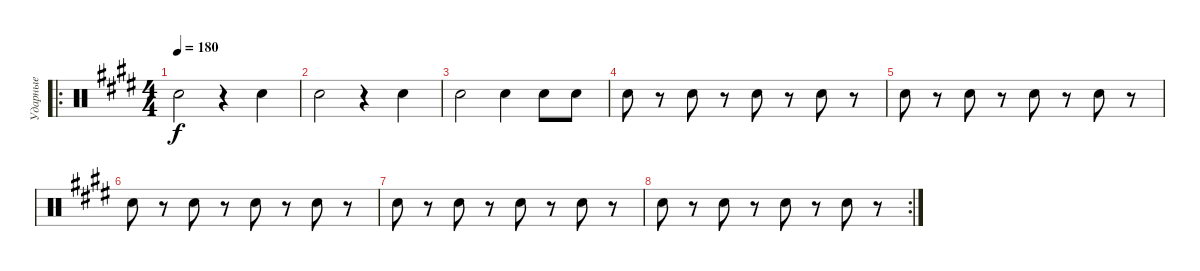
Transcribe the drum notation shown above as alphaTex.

\track ("Ударные" "Ударные") {instrument percussion}
\staff {score}
\articulation defaults
\ro
\ts (4 4)
\tempo 180
\clef neutral
\ks e "Snare (hit) 2".2{dy f}
r.4 "Snare (hit) 2".4 |
"Snare (hit) 2".2 r.4 "Snare (hit) 2".4 |
"Snare (hit) 2".2 "Snare (hit) 2".4 "Snare (hit) 2".8 "Snare (hit) 2".8 |
"Snare (hit) 2".8 r.8 "Snare (hit) 2".8 r.8 "Snare (hit) 2".8 r.8 "Snare (hit) 2".8 r.8 |
"Snare (hit) 2".8 r.8 "Snare (hit) 2".8 r.8 "Snare (hit) 2".8 r.8 "Snare (hit) 2".8 r.8 |
"Snare (hit) 2".8 r.8 "Snare (hit) 2".8 r.8 "Snare (hit) 2".8 r.8 "Snare (hit) 2".8 r.8 |
"Snare (hit) 2".8 r.8 "Snare (hit) 2".8 r.8 "Snare (hit) 2".8 r.8 "Snare (hit) 2".8 r.8 |
\rc 2 "Snare (hit) 2".8
r.8 "Snare (hit) 2".8 r.8 "Snare (hit) 2".8 r.8 "Snare (hit) 2".8 r.8
